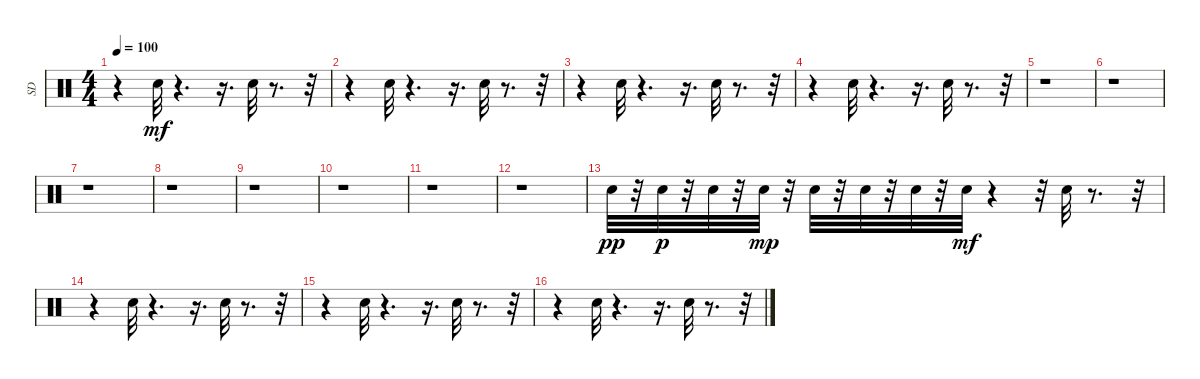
\track ("SD" "SD") {instrument percussion}
\staff {score}
\articulation defaults
\ts (4 4)
\tempo 100
\clef neutral
\ks c
r.4{dy mf} "Metronome (bell)".32 r.4{d} r.16{d} "Metronome (bell)".32 r.8{d} r.32 |
r.4 "Metronome (bell)".32 r.4{d} r.16{d} "Metronome (bell)".32 r.8{d} r.32 |
r.4 "Metronome (bell)".32 r.4{d} r.16{d} "Metronome (bell)".32 r.8{d} r.32 |
r.4 "Metronome (bell)".32 r.4{d} r.16{d} "Metronome (bell)".32 r.8{d} r.32 |
r.1 |
r.1 |
r.1 |
r.1 |
r.1 |
r.1 |
r.1 |
r.1 |
"Electric Snare (hit)".32{dy pp} r.32 "Electric Snare (hit)".32{dy p} r.32 "Electric Snare (hit)".32 r.32 "Electric Snare (hit)".32{dy mp} r.32 "Electric Snare (hit)".32 r.32 "Electric Snare (hit)".32 r.32 "Electric Snare (hit)".32 r.32 "Electric Snare (hit)".32{dy mf} r.4 r.32 "Metronome (bell)".32 r.8{d} r.32 |
r.4 "Metronome (bell)".32 r.4{d} r.16{d} "Metronome (bell)".32 r.8{d} r.32 |
r.4 "Metronome (bell)".32 r.4{d} r.16{d} "Metronome (bell)".32 r.8{d} r.32 |
r.4 "Metronome (bell)".32 r.4{d} r.16{d} "Metronome (bell)".32 r.8{d} r.32
